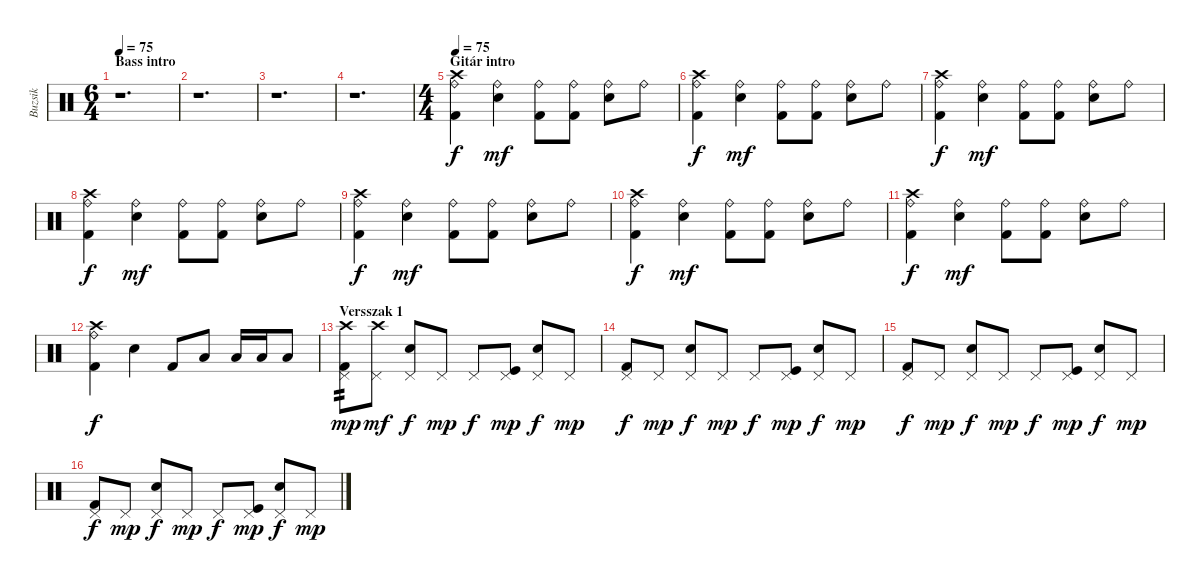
\track ("Buzsik" "Buzsik") {instrument percussion}
\staff {score}
\articulation defaults
\ts (6 4)
\section ("" "Bass intro")
\tempo 75
\tempo 110
\tempo 75
\clef neutral
\ks c
r.1{d dy f} |
r.1{d} |
r.1{d} |
r.1{d} |
\ts (4 4)
\section ("" "Gitár intro ")
\tempo 75
("Crash high (hit)" "Ride (bell)" "Kick (hit) 2").4 ("Ride (bell)" "Snare (hit) 2").4{dy mf} ("Ride (bell)" "Kick (hit) 2").8 ("Ride (bell)" "Kick (hit) 2").8 ("Ride (bell)" "Snare (hit) 2").8 "Ride (bell)".8 |
("Crash high (hit)" "Ride (bell)" "Kick (hit) 2").4{dy f} ("Ride (bell)" "Snare (hit) 2").4{dy mf} ("Ride (bell)" "Kick (hit) 2").8 ("Ride (bell)" "Kick (hit) 2").8 ("Ride (bell)" "Snare (hit) 2").8 "Ride (bell)".8 |
("Crash high (hit)" "Ride (bell)" "Kick (hit) 2").4{dy f} ("Ride (bell)" "Snare (hit) 2").4{dy mf} ("Ride (bell)" "Kick (hit) 2").8 ("Ride (bell)" "Kick (hit) 2").8 ("Ride (bell)" "Snare (hit) 2").8 "Ride (bell)".8 |
("Crash high (hit)" "Ride (bell)" "Kick (hit) 2").4{dy f} ("Ride (bell)" "Snare (hit) 2").4{dy mf} ("Ride (bell)" "Kick (hit) 2").8 ("Ride (bell)" "Kick (hit) 2").8 ("Ride (bell)" "Snare (hit) 2").8 "Ride (bell)".8 |
("Crash high (hit)" "Ride (bell)" "Kick (hit) 2").4{dy f} ("Ride (bell)" "Snare (hit) 2").4{dy mf} ("Ride (bell)" "Kick (hit) 2").8 ("Ride (bell)" "Kick (hit) 2").8 ("Ride (bell)" "Snare (hit) 2").8 "Ride (bell)".8 |
("Crash high (hit)" "Ride (bell)" "Kick (hit) 2").4{dy f} ("Ride (bell)" "Snare (hit) 2").4{dy mf} ("Ride (bell)" "Kick (hit) 2").8 ("Ride (bell)" "Kick (hit) 2").8 ("Ride (bell)" "Snare (hit) 2").8 "Ride (bell)".8 |
("Crash high (hit)" "Ride (bell)" "Kick (hit) 2").4{dy f} ("Ride (bell)" "Snare (hit) 2").4{dy mf} ("Ride (bell)" "Kick (hit) 2").8 ("Ride (bell)" "Kick (hit) 2").8 ("Ride (bell)" "Snare (hit) 2").8 "Ride (bell)".8 |
("Crash high (hit)" "Ride (bell)" "Kick (hit) 2").4{dy f} "Snare (hit) 2".4 "Kick (hit) 2".8 "Low Floor Tom (hit)".8 "Low Floor Tom (hit)".16 "Low Floor Tom (hit)".16 "Low Floor Tom (hit)".8 |
\section ("" "Versszak 1")
("Pedal Hi-Hat (hit)" "Crash high (hit)" "Kick (hit) 2").8{tp 2 dy mp} ("Pedal Hi-Hat (hit)" "Crash high (hit)").8{dy mf} ("Pedal Hi-Hat (hit)" "Snare (hit) 2").8{dy f} "Pedal Hi-Hat (hit)".8{dy mp} "Pedal Hi-Hat (hit)".8{dy f} ("Pedal Hi-Hat (hit)" "Kick (hit)").8{dy mp} ("Pedal Hi-Hat (hit)" "Snare (hit) 2").8{dy f} "Pedal Hi-Hat (hit)".8{dy mp} |
("Pedal Hi-Hat (hit)" "Kick (hit) 2").8{dy f} "Pedal Hi-Hat (hit)".8{dy mp} ("Pedal Hi-Hat (hit)" "Snare (hit) 2").8{dy f} "Pedal Hi-Hat (hit)".8{dy mp} "Pedal Hi-Hat (hit)".8{dy f} ("Pedal Hi-Hat (hit)" "Kick (hit)").8{dy mp} ("Pedal Hi-Hat (hit)" "Snare (hit) 2").8{dy f} "Pedal Hi-Hat (hit)".8{dy mp} |
("Pedal Hi-Hat (hit)" "Kick (hit) 2").8{dy f} "Pedal Hi-Hat (hit)".8{dy mp} ("Pedal Hi-Hat (hit)" "Snare (hit) 2").8{dy f} "Pedal Hi-Hat (hit)".8{dy mp} "Pedal Hi-Hat (hit)".8{dy f} ("Pedal Hi-Hat (hit)" "Kick (hit)").8{dy mp} ("Pedal Hi-Hat (hit)" "Snare (hit) 2").8{dy f} "Pedal Hi-Hat (hit)".8{dy mp} |
("Pedal Hi-Hat (hit)" "Kick (hit) 2").8{dy f} "Pedal Hi-Hat (hit)".8{dy mp} ("Pedal Hi-Hat (hit)" "Snare (hit) 2").8{dy f} "Pedal Hi-Hat (hit)".8{dy mp} "Pedal Hi-Hat (hit)".8{dy f} ("Pedal Hi-Hat (hit)" "Kick (hit)").8{dy mp} ("Pedal Hi-Hat (hit)" "Snare (hit) 2").8{dy f} "Pedal Hi-Hat (hit)".8{dy mp}
